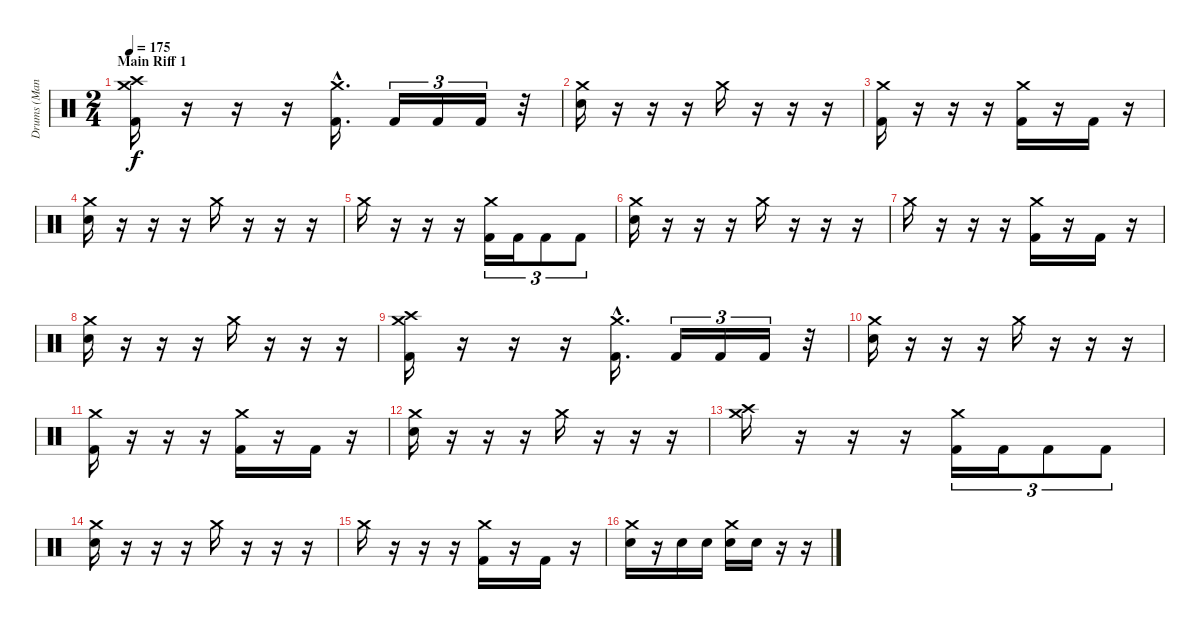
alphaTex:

\track ("Drums (Mancino)" "Drums (Man") {instrument percussion}
\staff {score}
\articulation defaults
\ts (2 4)
\section ("" "Main Riff 1")
\tempo 175
\clef neutral
\ks c
("Crash medium (hit)" "Crash high (hit)" "Kick (hit) 2").16{dy f} r.16 r.16 r.16 ("Crash medium (hit)"{hac} "Kick (hit) 2"{hac}).16{d} "Kick (hit) 2".16{tu (3 2)} "Kick (hit) 2".16{tu (3 2)} "Kick (hit) 2".16{tu (3 2)} r.32 |
("Crash medium (hit)" "Electric Snare (hit)").16 r.16 r.16 r.16 "Crash medium (hit)".16 r.16 r.16 r.16 |
("Crash medium (hit)" "Kick (hit) 2").16 r.16 r.16 r.16 ("Crash medium (hit)" "Kick (hit) 2").16 r.16 "Kick (hit) 2".16 r.16 |
("Crash medium (hit)" "Electric Snare (hit)").16 r.16 r.16 r.16 "Crash medium (hit)".16 r.16 r.16 r.16 |
"Crash medium (hit)".16 r.16 r.16 r.16 ("Crash medium (hit)" "Kick (hit) 2").16{tu (3 2)} "Kick (hit) 2".16{tu (3 2)} "Kick (hit) 2".8{tu (3 2)} "Kick (hit) 2".8{tu (3 2)} |
("Crash medium (hit)" "Electric Snare (hit)").16 r.16 r.16 r.16 "Crash medium (hit)".16 r.16 r.16 r.16 |
"Crash medium (hit)".16 r.16 r.16 r.16 ("Crash medium (hit)" "Kick (hit) 2").16 r.16 "Kick (hit) 2".16 r.16 |
("Crash medium (hit)" "Electric Snare (hit)").16 r.16 r.16 r.16 "Crash medium (hit)".16 r.16 r.16 r.16 |
("Crash medium (hit)" "Crash high (hit)" "Kick (hit) 2").16 r.16 r.16 r.16 ("Crash medium (hit)"{hac} "Kick (hit) 2"{hac}).16{d} "Kick (hit) 2".16{tu (3 2)} "Kick (hit) 2".16{tu (3 2)} "Kick (hit) 2".16{tu (3 2)} r.32 |
("Crash medium (hit)" "Electric Snare (hit)").16 r.16 r.16 r.16 "Crash medium (hit)".16 r.16 r.16 r.16 |
("Crash medium (hit)" "Kick (hit) 2").16 r.16 r.16 r.16 ("Crash medium (hit)" "Kick (hit) 2").16 r.16 "Kick (hit) 2".16 r.16 |
("Crash medium (hit)" "Electric Snare (hit)").16 r.16 r.16 r.16 "Crash medium (hit)".16 r.16 r.16 r.16 |
("Crash medium (hit)" "Crash high (hit)").16 r.16 r.16 r.16 ("Crash medium (hit)" "Kick (hit) 2").16{tu (3 2)} "Kick (hit) 2".16{tu (3 2)} "Kick (hit) 2".8{tu (3 2)} "Kick (hit) 2".8{tu (3 2)} |
("Crash medium (hit)" "Electric Snare (hit)").16 r.16 r.16 r.16 "Crash medium (hit)".16 r.16 r.16 r.16 |
"Crash medium (hit)".16 r.16 r.16 r.16 ("Crash medium (hit)" "Kick (hit) 2").16 r.16 "Kick (hit) 2".16 r.16 |
("Crash medium (hit)" "Electric Snare (hit)").16 r.16 "Electric Snare (hit)".16 "Electric Snare (hit)".16 ("Crash medium (hit)" "Electric Snare (hit)").16 "Electric Snare (hit)".16 r.16 r.16
